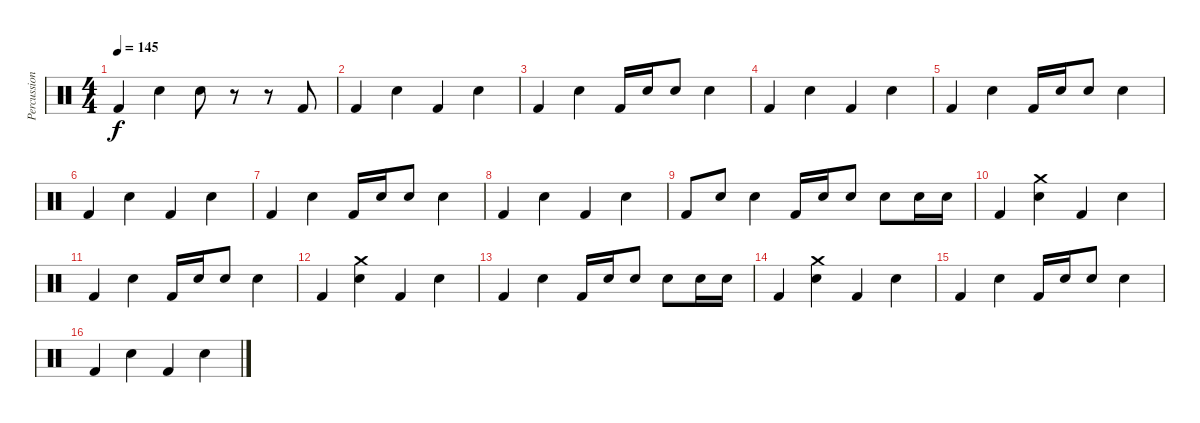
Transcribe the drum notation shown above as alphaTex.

\track ("Percussion" "Percussion") {instrument percussion}
\staff {score}
\articulation defaults
\ts (4 4)
\tempo 145
\clef neutral
\ks c "Kick (hit) 2".4{dy f} "Electric Snare (hit)".4 "Electric Snare (hit)".8
r.8 r.8 "Kick (hit) 2".8 |
"Kick (hit) 2".4 "Electric Snare (hit)".4 "Kick (hit) 2".4 "Electric Snare (hit)".4 |
"Kick (hit) 2".4 "Electric Snare (hit)".4 "Kick (hit) 2".16 "Electric Snare (hit)".16 "Electric Snare (hit)".8 "Electric Snare (hit)".4 |
"Kick (hit) 2".4 "Electric Snare (hit)".4 "Kick (hit) 2".4 "Electric Snare (hit)".4 |
"Kick (hit) 2".4 "Electric Snare (hit)".4 "Kick (hit) 2".16 "Electric Snare (hit)".16 "Electric Snare (hit)".8 "Electric Snare (hit)".4 |
"Kick (hit) 2".4 "Electric Snare (hit)".4 "Kick (hit) 2".4 "Electric Snare (hit)".4 |
"Kick (hit) 2".4 "Electric Snare (hit)".4 "Kick (hit) 2".16 "Electric Snare (hit)".16 "Electric Snare (hit)".8 "Electric Snare (hit)".4 |
"Kick (hit) 2".4 "Electric Snare (hit)".4 "Kick (hit) 2".4 "Electric Snare (hit)".4 |
"Kick (hit) 2".8 "Electric Snare (hit)".8 "Electric Snare (hit)".4 "Kick (hit) 2".16 "Electric Snare (hit)".16 "Electric Snare (hit)".8 "Electric Snare (hit)".8 "Electric Snare (hit)".16 "Electric Snare (hit)".16 |
"Kick (hit) 2".4 ("Crash medium (hit)" "Electric Snare (hit)").4 "Kick (hit) 2".4 "Electric Snare (hit)".4 |
"Kick (hit) 2".4 "Electric Snare (hit)".4 "Kick (hit) 2".16 "Electric Snare (hit)".16 "Electric Snare (hit)".8 "Electric Snare (hit)".4 |
"Kick (hit) 2".4 ("Crash medium (hit)" "Electric Snare (hit)").4 "Kick (hit) 2".4 "Electric Snare (hit)".4 |
"Kick (hit) 2".4 "Electric Snare (hit)".4 "Kick (hit) 2".16 "Electric Snare (hit)".16 "Electric Snare (hit)".8 "Electric Snare (hit)".8 "Electric Snare (hit)".16 "Electric Snare (hit)".16 |
"Kick (hit) 2".4 ("Crash medium (hit)" "Electric Snare (hit)").4 "Kick (hit) 2".4 "Electric Snare (hit)".4 |
"Kick (hit) 2".4 "Electric Snare (hit)".4 "Kick (hit) 2".16 "Electric Snare (hit)".16 "Electric Snare (hit)".8 "Electric Snare (hit)".4 |
"Kick (hit) 2".4 "Electric Snare (hit)".4 "Kick (hit) 2".4 "Electric Snare (hit)".4
